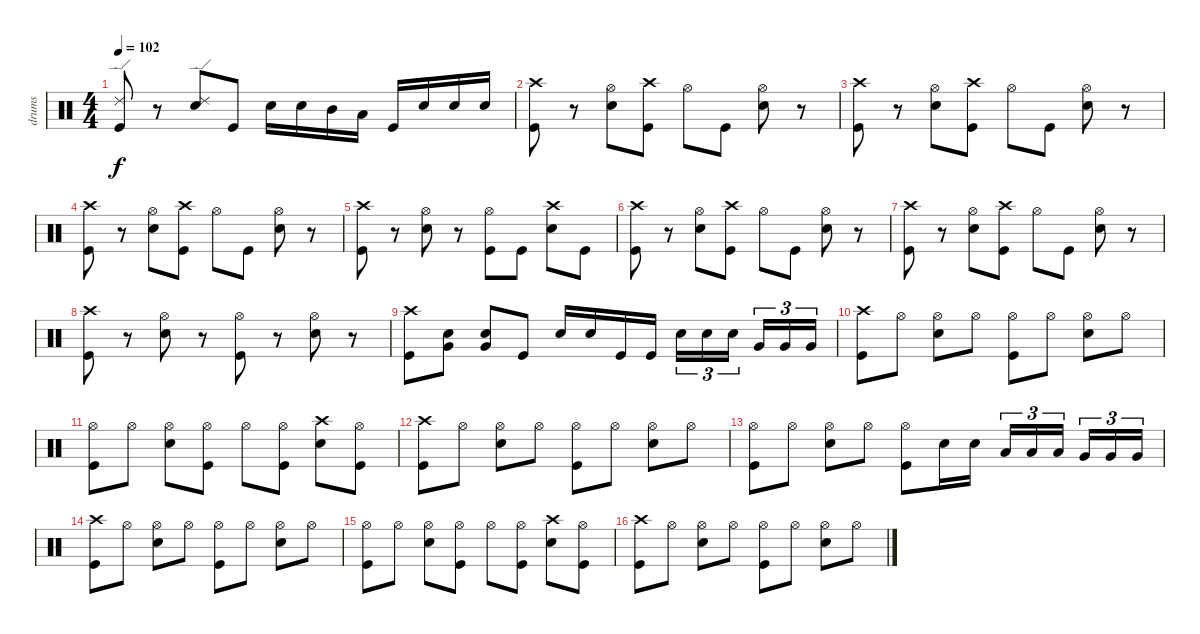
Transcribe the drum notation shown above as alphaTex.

\track ("drums" "drums") {instrument percussion}
\staff {score}
\articulation defaults
\ts (4 4)
\tempo 102
\clef neutral
\ks c
("Ride (edge) 2" "Kick (hit)").8{dy f} r.8 ("Ride (edge) 2" "Snare (hit) 2").8 "Kick (hit)".8 "Snare (hit) 2".16 "Snare (hit) 2".16 "Mid Tom (hit)".16 "Low Tom (hit)".16 "Kick (hit)".16 "Snare (hit) 2".16 "Snare (hit) 2".16 "Snare (hit) 2".16 |
("Crash high (hit)" "Kick (hit)").8 r.8 ("Hi-Hat (open)" "Snare (hit) 2").8 ("Crash high (hit)" "Kick (hit)").8 "Hi-Hat (open)".8 "Kick (hit)".8 ("Hi-Hat (open)" "Snare (hit) 2").8 r.8 |
("Crash high (hit)" "Kick (hit)").8 r.8 ("Hi-Hat (open)" "Snare (hit) 2").8 ("Crash high (hit)" "Kick (hit)").8 "Hi-Hat (open)".8 "Kick (hit)".8 ("Hi-Hat (open)" "Snare (hit) 2").8 r.8 |
("Crash high (hit)" "Kick (hit)").8 r.8 ("Hi-Hat (open)" "Snare (hit) 2").8 ("Crash high (hit)" "Kick (hit)").8 "Hi-Hat (open)".8 "Kick (hit)".8 ("Hi-Hat (open)" "Snare (hit) 2").8 r.8 |
("Crash high (hit)" "Kick (hit)").8 r.8 ("Hi-Hat (open)" "Snare (hit) 2").8 r.8 ("Hi-Hat (open)" "Kick (hit)").8 "Kick (hit)".8 ("Crash high (hit)" "Snare (hit) 2").8 "Kick (hit)".8 |
("Crash high (hit)" "Kick (hit)").8 r.8 ("Hi-Hat (open)" "Snare (hit) 2").8 ("Crash high (hit)" "Kick (hit)").8 "Hi-Hat (open)".8 "Kick (hit)".8 ("Hi-Hat (open)" "Snare (hit) 2").8 r.8 |
("Crash high (hit)" "Kick (hit)").8 r.8 ("Hi-Hat (open)" "Snare (hit) 2").8 ("Crash high (hit)" "Kick (hit)").8 "Hi-Hat (open)".8 "Kick (hit)".8 ("Hi-Hat (open)" "Snare (hit) 2").8 r.8 |
("Crash high (hit)" "Kick (hit)").8 r.8 ("Hi-Hat (open)" "Snare (hit) 2").8 r.8 ("Hi-Hat (open)" "Kick (hit)").8 r.8 ("Hi-Hat (open)" "Snare (hit) 2").8 r.8 |
("Crash high (hit)" "Kick (hit)").8 ("Very Low Tom (hit)" "Snare (hit) 2").8 ("Very Low Tom (hit)" "Snare (hit) 2").8 "Kick (hit)".8 "Snare (hit) 2".16 "Snare (hit) 2".16 "Kick (hit)".16 "Kick (hit)".16 "Snare (hit) 2".16{tu (3 2)} "Snare (hit) 2".16{tu (3 2)} "Snare (hit) 2".16{tu (3 2)} "Very Low Tom (hit)".16{tu (3 2)} "Very Low Tom (hit)".16{tu (3 2)} "Very Low Tom (hit)".16{tu (3 2)} |
("Crash high (hit)" "Kick (hit)").8 "Hi-Hat (open)".8 ("Hi-Hat (open)" "Snare (hit) 2").8 "Hi-Hat (open)".8 ("Hi-Hat (open)" "Kick (hit)").8 "Hi-Hat (open)".8 ("Hi-Hat (open)" "Snare (hit) 2").8 "Hi-Hat (open)".8 |
("Hi-Hat (open)" "Kick (hit)").8 "Hi-Hat (open)".8 ("Hi-Hat (open)" "Snare (hit) 2").8 ("Hi-Hat (open)" "Kick (hit)").8 "Hi-Hat (open)".8 ("Kick (hit)" "Hi-Hat (open)").8 ("Crash high (hit)" "Snare (hit) 2").8 ("Kick (hit)" "Hi-Hat (open)").8 |
("Crash high (hit)" "Kick (hit)").8 "Hi-Hat (open)".8 ("Hi-Hat (open)" "Snare (hit) 2").8 "Hi-Hat (open)".8 ("Hi-Hat (open)" "Kick (hit)").8 "Hi-Hat (open)".8 ("Hi-Hat (open)" "Snare (hit) 2").8 "Hi-Hat (open)".8 |
("Hi-Hat (open)" "Kick (hit)").8 "Hi-Hat (open)".8 ("Hi-Hat (open)" "Snare (hit) 2").8 "Hi-Hat (open)".8 ("Kick (hit)" "Hi-Hat (open)").8 "Snare (hit) 2".16 "Snare (hit) 2".16 "Low Tom (hit)".16{tu (3 2)} "Low Tom (hit)".16{tu (3 2)} "Low Tom (hit)".16{tu (3 2)} "Very Low Tom (hit)".16{tu (3 2)} "Very Low Tom (hit)".16{tu (3 2)} "Very Low Tom (hit)".16{tu (3 2)} |
("Crash high (hit)" "Kick (hit)").8 "Hi-Hat (open)".8 ("Hi-Hat (open)" "Snare (hit) 2").8 "Hi-Hat (open)".8 ("Hi-Hat (open)" "Kick (hit)").8 "Hi-Hat (open)".8 ("Hi-Hat (open)" "Snare (hit) 2").8 "Hi-Hat (open)".8 |
("Hi-Hat (open)" "Kick (hit)").8 "Hi-Hat (open)".8 ("Hi-Hat (open)" "Snare (hit) 2").8 ("Hi-Hat (open)" "Kick (hit)").8 "Hi-Hat (open)".8 ("Kick (hit)" "Hi-Hat (open)").8 ("Crash high (hit)" "Snare (hit) 2").8 ("Kick (hit)" "Hi-Hat (open)").8 |
("Crash high (hit)" "Kick (hit)").8 "Hi-Hat (open)".8 ("Hi-Hat (open)" "Snare (hit) 2").8 "Hi-Hat (open)".8 ("Hi-Hat (open)" "Kick (hit)").8 "Hi-Hat (open)".8 ("Hi-Hat (open)" "Snare (hit) 2").8 "Hi-Hat (open)".8
